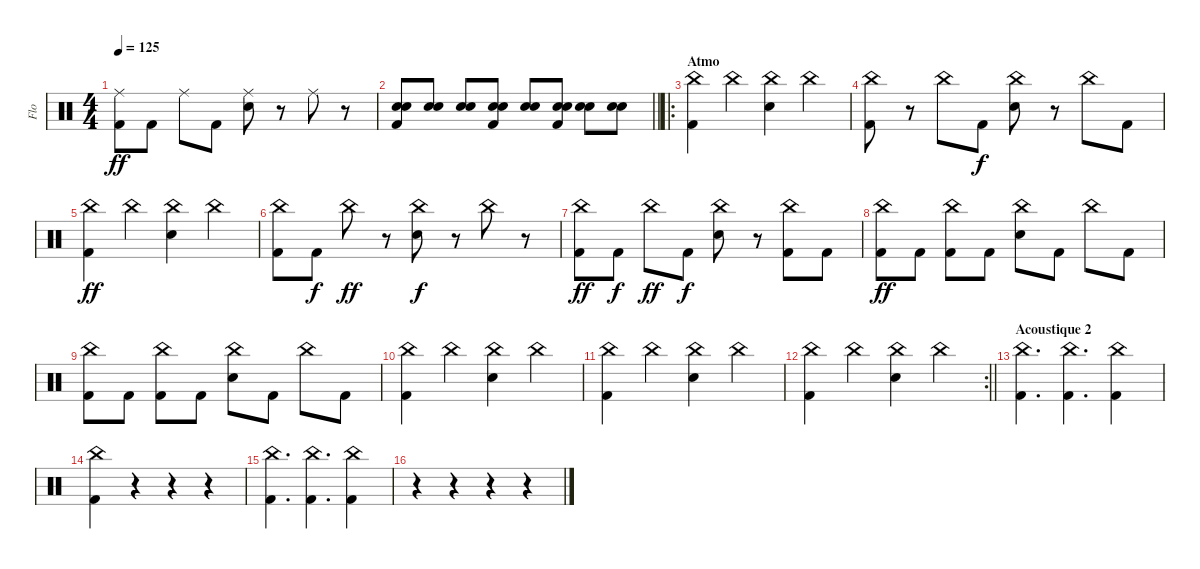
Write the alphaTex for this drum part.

\track ("Flo" "Flo") {instrument percussion}
\staff {score}
\articulation defaults
\ts (4 4)
\tempo 125
\clef neutral
\ks c
("Ride (middle)" "Kick (hit) 2").8{dy ff} "Kick (hit) 2".8 "Ride (middle)".8 "Kick (hit) 2".8 ("Ride (middle)" "Electric Snare (hit)").8 r.8 "Ride (middle)".8 r.8 |
\barLineRight lightlight
("Electric Snare (hit)" "Electric Snare (hit)" "Kick (hit) 2").8 ("Electric Snare (hit)" "Electric Snare (hit)").8 ("Electric Snare (hit)" "Electric Snare (hit)").8 ("Electric Snare (hit)" "Electric Snare (hit)" "Kick (hit) 2").8 ("Electric Snare (hit)" "Electric Snare (hit)").8 ("Electric Snare (hit)" "Electric Snare (hit)" "Kick (hit) 2").8 ("Electric Snare (hit)" "Electric Snare (hit)").8 ("Electric Snare (hit)" "Electric Snare (hit)").8 |
\ro
\section ("" "Atmo")
("China (hit)" "Kick (hit) 2").4 "China (hit)".4 ("China (hit)" "Electric Snare (hit)").4 "China (hit)".4 |
("China (hit)" "Kick (hit) 2").8 r.8 "China (hit)".8 "Kick (hit) 2".8{dy f} ("China (hit)" "Electric Snare (hit)").8 r.8 "China (hit)".8 "Kick (hit) 2".8 |
("China (hit)" "Kick (hit) 2").4{dy ff} "China (hit)".4 ("China (hit)" "Electric Snare (hit)").4 "China (hit)".4 |
("China (hit)" "Kick (hit) 2").8 "Kick (hit) 2".8{dy f} "China (hit)".8{dy ff} r.8 ("China (hit)" "Electric Snare (hit)").8{dy f} r.8 "China (hit)".8 r.8 |
("China (hit)" "Kick (hit) 2").8{dy ff} "Kick (hit) 2".8{dy f} "China (hit)".8{dy ff} "Kick (hit) 2".8{dy f} ("China (hit)" "Electric Snare (hit)").8 r.8 ("China (hit)" "Kick (hit) 2").8 "Kick (hit) 2".8 |
("China (hit)" "Kick (hit) 2").8{dy ff} "Kick (hit) 2".8 ("China (hit)" "Kick (hit) 2").8 "Kick (hit) 2".8 ("China (hit)" "Electric Snare (hit)").8 "Kick (hit) 2".8 "China (hit)".8 "Kick (hit) 2".8 |
("China (hit)" "Kick (hit) 2").8 "Kick (hit) 2".8 ("China (hit)" "Kick (hit) 2").8 "Kick (hit) 2".8 ("China (hit)" "Electric Snare (hit)").8 "Kick (hit) 2".8 "China (hit)".8 "Kick (hit) 2".8 |
("China (hit)" "Kick (hit) 2").4 "China (hit)".4 ("China (hit)" "Electric Snare (hit)").4 "China (hit)".4 |
("China (hit)" "Kick (hit) 2").4 "China (hit)".4 ("China (hit)" "Electric Snare (hit)").4 "China (hit)".4 |
\rc 2
\barLineRight lightlight
("China (hit)" "Kick (hit) 2").4 "China (hit)".4 ("China (hit)" "Electric Snare (hit)").4 "China (hit)".4 |
\section ("" "Acoustique 2")
("China (hit)" "Kick (hit) 2").4{d} ("China (hit)" "Kick (hit) 2").4{d} ("China (hit)" "Kick (hit) 2").4 |
("China (hit)" "Kick (hit) 2").4 r.4 r.4 r.4 |
("China (hit)" "Kick (hit) 2").4{d} ("China (hit)" "Kick (hit) 2").4{d} ("China (hit)" "Kick (hit) 2").4 |
r.4 r.4 r.4 r.4
